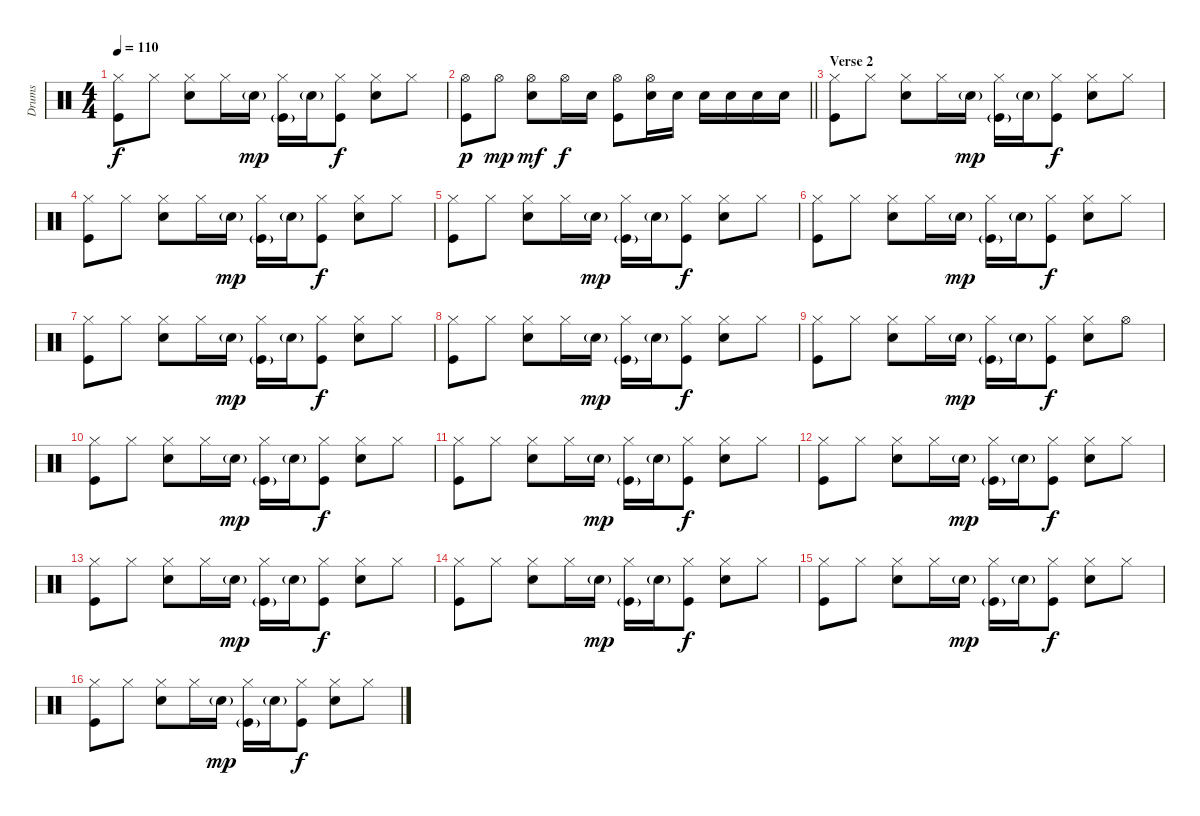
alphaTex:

\track ("Drums" "Drums") {instrument percussion}
\staff {score}
\articulation defaults
\ts (4 4)
\tempo 110
\clef neutral
\ks c
("Hi-Hat (closed)" "Kick (hit)").8{dy f} "Hi-Hat (closed)".8 ("Hi-Hat (closed)" "Electric Snare (hit)").8 "Hi-Hat (closed)".16 "Electric Snare (hit)"{g}.16{dy mp} ("Hi-Hat (closed)" "Kick (hit)"{g}).16 "Electric Snare (hit)"{g}.16 ("Hi-Hat (closed)" "Kick (hit)").8{dy f} ("Hi-Hat (closed)" "Electric Snare (hit)").8 "Hi-Hat (closed)".8 |
\barLineRight lightlight
("Hi-Hat (open)" "Kick (hit)").8{dy p} "Hi-Hat (open)".8{dy mp} ("Hi-Hat (open)" "Electric Snare (hit)").8{dy mf} "Hi-Hat (open)".16{dy f} "Electric Snare (hit)".16 ("Hi-Hat (open)" "Kick (hit)").8 ("Hi-Hat (open)" "Electric Snare (hit)").16 "Electric Snare (hit)".16 "Electric Snare (hit)".16 "Electric Snare (hit)".16 "Electric Snare (hit)".16 "Electric Snare (hit)".16 |
\section ("" "Verse 2")
("Hi-Hat (closed)" "Kick (hit)").8 "Hi-Hat (closed)".8 ("Hi-Hat (closed)" "Electric Snare (hit)").8 "Hi-Hat (closed)".16 "Electric Snare (hit)"{g}.16{dy mp} ("Hi-Hat (closed)" "Kick (hit)"{g}).16 "Electric Snare (hit)"{g}.16 ("Hi-Hat (closed)" "Kick (hit)").8{dy f} ("Hi-Hat (closed)" "Electric Snare (hit)").8 "Hi-Hat (closed)".8 |
("Hi-Hat (closed)" "Kick (hit)").8 "Hi-Hat (closed)".8 ("Hi-Hat (closed)" "Electric Snare (hit)").8 "Hi-Hat (closed)".16 "Electric Snare (hit)"{g}.16{dy mp} ("Hi-Hat (closed)" "Kick (hit)"{g}).16 "Electric Snare (hit)"{g}.16 ("Hi-Hat (closed)" "Kick (hit)").8{dy f} ("Hi-Hat (closed)" "Electric Snare (hit)").8 "Hi-Hat (closed)".8 |
("Hi-Hat (closed)" "Kick (hit)").8 "Hi-Hat (closed)".8 ("Hi-Hat (closed)" "Electric Snare (hit)").8 "Hi-Hat (closed)".16 "Electric Snare (hit)"{g}.16{dy mp} ("Hi-Hat (closed)" "Kick (hit)"{g}).16 "Electric Snare (hit)"{g}.16 ("Hi-Hat (closed)" "Kick (hit)").8{dy f} ("Hi-Hat (closed)" "Electric Snare (hit)").8 "Hi-Hat (closed)".8 |
("Hi-Hat (closed)" "Kick (hit)").8 "Hi-Hat (closed)".8 ("Hi-Hat (closed)" "Electric Snare (hit)").8 "Hi-Hat (closed)".16 "Electric Snare (hit)"{g}.16{dy mp} ("Hi-Hat (closed)" "Kick (hit)"{g}).16 "Electric Snare (hit)"{g}.16 ("Hi-Hat (closed)" "Kick (hit)").8{dy f} ("Hi-Hat (closed)" "Electric Snare (hit)").8 "Hi-Hat (closed)".8 |
("Hi-Hat (closed)" "Kick (hit)").8 "Hi-Hat (closed)".8 ("Hi-Hat (closed)" "Electric Snare (hit)").8 "Hi-Hat (closed)".16 "Electric Snare (hit)"{g}.16{dy mp} ("Hi-Hat (closed)" "Kick (hit)"{g}).16 "Electric Snare (hit)"{g}.16 ("Hi-Hat (closed)" "Kick (hit)").8{dy f} ("Hi-Hat (closed)" "Electric Snare (hit)").8 "Hi-Hat (closed)".8 |
("Hi-Hat (closed)" "Kick (hit)").8 "Hi-Hat (closed)".8 ("Hi-Hat (closed)" "Electric Snare (hit)").8 "Hi-Hat (closed)".16 "Electric Snare (hit)"{g}.16{dy mp} ("Hi-Hat (closed)" "Kick (hit)"{g}).16 "Electric Snare (hit)"{g}.16 ("Hi-Hat (closed)" "Kick (hit)").8{dy f} ("Hi-Hat (closed)" "Electric Snare (hit)").8 "Hi-Hat (closed)".8 |
("Hi-Hat (closed)" "Kick (hit)").8 "Hi-Hat (closed)".8 ("Hi-Hat (closed)" "Electric Snare (hit)").8 "Hi-Hat (closed)".16 "Electric Snare (hit)"{g}.16{dy mp} ("Hi-Hat (closed)" "Kick (hit)"{g}).16 "Electric Snare (hit)"{g}.16 ("Hi-Hat (closed)" "Kick (hit)").8{dy f} ("Hi-Hat (closed)" "Electric Snare (hit)").8 "Hi-Hat (open)".8 |
("Hi-Hat (closed)" "Kick (hit)").8 "Hi-Hat (closed)".8 ("Hi-Hat (closed)" "Electric Snare (hit)").8 "Hi-Hat (closed)".16 "Electric Snare (hit)"{g}.16{dy mp} ("Hi-Hat (closed)" "Kick (hit)"{g}).16 "Electric Snare (hit)"{g}.16 ("Hi-Hat (closed)" "Kick (hit)").8{dy f} ("Hi-Hat (closed)" "Electric Snare (hit)").8 "Hi-Hat (closed)".8 |
("Hi-Hat (closed)" "Kick (hit)").8 "Hi-Hat (closed)".8 ("Hi-Hat (closed)" "Electric Snare (hit)").8 "Hi-Hat (closed)".16 "Electric Snare (hit)"{g}.16{dy mp} ("Hi-Hat (closed)" "Kick (hit)"{g}).16 "Electric Snare (hit)"{g}.16 ("Hi-Hat (closed)" "Kick (hit)").8{dy f} ("Hi-Hat (closed)" "Electric Snare (hit)").8 "Hi-Hat (closed)".8 |
("Hi-Hat (closed)" "Kick (hit)").8 "Hi-Hat (closed)".8 ("Hi-Hat (closed)" "Electric Snare (hit)").8 "Hi-Hat (closed)".16 "Electric Snare (hit)"{g}.16{dy mp} ("Hi-Hat (closed)" "Kick (hit)"{g}).16 "Electric Snare (hit)"{g}.16 ("Hi-Hat (closed)" "Kick (hit)").8{dy f} ("Hi-Hat (closed)" "Electric Snare (hit)").8 "Hi-Hat (closed)".8 |
("Hi-Hat (closed)" "Kick (hit)").8 "Hi-Hat (closed)".8 ("Hi-Hat (closed)" "Electric Snare (hit)").8 "Hi-Hat (closed)".16 "Electric Snare (hit)"{g}.16{dy mp} ("Hi-Hat (closed)" "Kick (hit)"{g}).16 "Electric Snare (hit)"{g}.16 ("Hi-Hat (closed)" "Kick (hit)").8{dy f} ("Hi-Hat (closed)" "Electric Snare (hit)").8 "Hi-Hat (closed)".8 |
("Hi-Hat (closed)" "Kick (hit)").8 "Hi-Hat (closed)".8 ("Hi-Hat (closed)" "Electric Snare (hit)").8 "Hi-Hat (closed)".16 "Electric Snare (hit)"{g}.16{dy mp} ("Hi-Hat (closed)" "Kick (hit)"{g}).16 "Electric Snare (hit)"{g}.16 ("Hi-Hat (closed)" "Kick (hit)").8{dy f} ("Hi-Hat (closed)" "Electric Snare (hit)").8 "Hi-Hat (closed)".8 |
("Hi-Hat (closed)" "Kick (hit)").8 "Hi-Hat (closed)".8 ("Hi-Hat (closed)" "Electric Snare (hit)").8 "Hi-Hat (closed)".16 "Electric Snare (hit)"{g}.16{dy mp} ("Hi-Hat (closed)" "Kick (hit)"{g}).16 "Electric Snare (hit)"{g}.16 ("Hi-Hat (closed)" "Kick (hit)").8{dy f} ("Hi-Hat (closed)" "Electric Snare (hit)").8 "Hi-Hat (closed)".8 |
("Hi-Hat (closed)" "Kick (hit)").8 "Hi-Hat (closed)".8 ("Hi-Hat (closed)" "Electric Snare (hit)").8 "Hi-Hat (closed)".16 "Electric Snare (hit)"{g}.16{dy mp} ("Hi-Hat (closed)" "Kick (hit)"{g}).16 "Electric Snare (hit)"{g}.16 ("Hi-Hat (closed)" "Kick (hit)").8{dy f} ("Hi-Hat (closed)" "Electric Snare (hit)").8 "Hi-Hat (closed)".8
